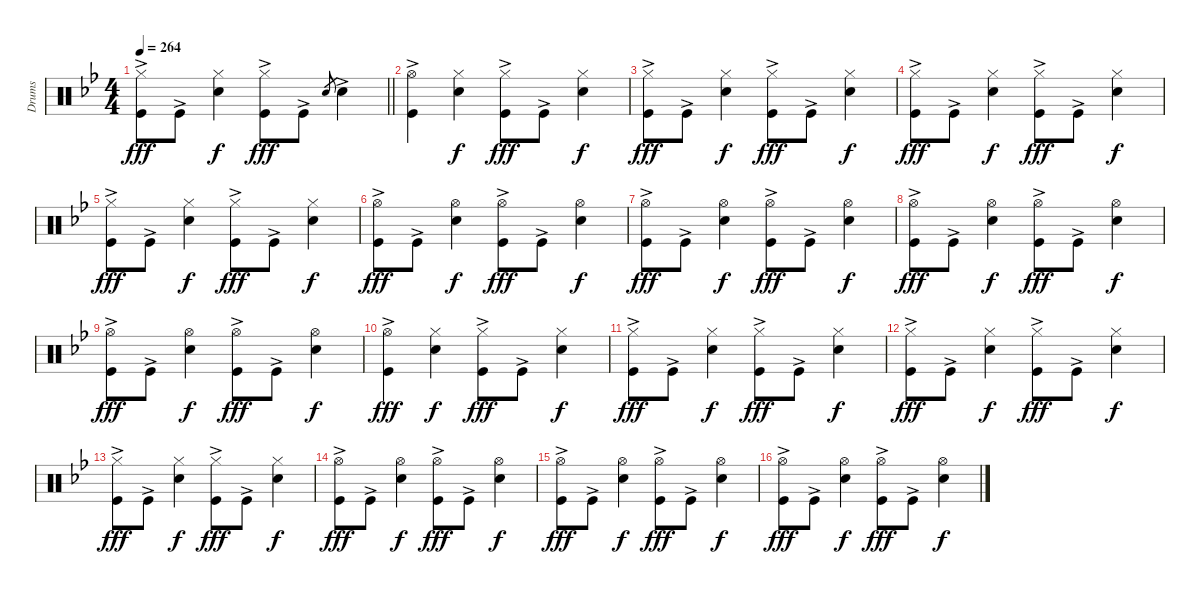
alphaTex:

\track ("Drums" "Drums") {instrument percussion}
\staff {score}
\articulation defaults
\ts (4 4)
\tempo 264
\clef neutral
\barLineRight lightlight
\ks gminor
("Hi-Hat (closed)" "Kick (hit)"{ac}).8{dy fff} "Kick (hit)"{ac}.8 ("Hi-Hat (closed)" "Snare (hit) 2").4{dy f} ("Hi-Hat (closed)" "Kick (hit)"{ac}).8{dy fff} "Kick (hit)"{ac}.8 "Snare (hit) 2".8{gr} "Snare (hit) 2"{ac}.4 |
("Hi-Hat (open)" "Kick (hit)"{ac}).4 ("Hi-Hat (closed)" "Snare (hit) 2").4{dy f} ("Hi-Hat (closed)" "Kick (hit)"{ac}).8{dy fff} "Kick (hit)"{ac}.8 ("Hi-Hat (closed)" "Snare (hit) 2").4{dy f} |
("Hi-Hat (closed)" "Kick (hit)"{ac}).8{dy fff} "Kick (hit)"{ac}.8 ("Hi-Hat (closed)" "Snare (hit) 2").4{dy f} ("Hi-Hat (closed)" "Kick (hit)"{ac}).8{dy fff} "Kick (hit)"{ac}.8 ("Hi-Hat (closed)" "Snare (hit) 2").4{dy f} |
("Hi-Hat (closed)" "Kick (hit)"{ac}).8{dy fff} "Kick (hit)"{ac}.8 ("Hi-Hat (closed)" "Snare (hit) 2").4{dy f} ("Hi-Hat (closed)" "Kick (hit)"{ac}).8{dy fff} "Kick (hit)"{ac}.8 ("Hi-Hat (closed)" "Snare (hit) 2").4{dy f} |
("Hi-Hat (closed)" "Kick (hit)"{ac}).8{dy fff} "Kick (hit)"{ac}.8 ("Hi-Hat (closed)" "Snare (hit) 2").4{dy f} ("Hi-Hat (closed)" "Kick (hit)"{ac}).8{dy fff} "Kick (hit)"{ac}.8 ("Hi-Hat (closed)" "Snare (hit) 2").4{dy f} |
("Hi-Hat (open)" "Kick (hit)"{ac}).8{dy fff} "Kick (hit)"{ac}.8 ("Hi-Hat (open)" "Snare (hit) 2").4{dy f} ("Hi-Hat (open)" "Kick (hit)"{ac}).8{dy fff} "Kick (hit)"{ac}.8 ("Hi-Hat (open)" "Snare (hit) 2").4{dy f} |
("Hi-Hat (open)" "Kick (hit)"{ac}).8{dy fff} "Kick (hit)"{ac}.8 ("Hi-Hat (open)" "Snare (hit) 2").4{dy f} ("Hi-Hat (open)" "Kick (hit)"{ac}).8{dy fff} "Kick (hit)"{ac}.8 ("Hi-Hat (open)" "Snare (hit) 2").4{dy f} |
("Hi-Hat (open)" "Kick (hit)"{ac}).8{dy fff} "Kick (hit)"{ac}.8 ("Hi-Hat (open)" "Snare (hit) 2").4{dy f} ("Hi-Hat (open)" "Kick (hit)"{ac}).8{dy fff} "Kick (hit)"{ac}.8 ("Hi-Hat (open)" "Snare (hit) 2").4{dy f} |
("Hi-Hat (open)" "Kick (hit)"{ac}).8{dy fff} "Kick (hit)"{ac}.8 ("Hi-Hat (open)" "Snare (hit) 2").4{dy f} ("Hi-Hat (open)" "Kick (hit)"{ac}).8{dy fff} "Kick (hit)"{ac}.8 ("Hi-Hat (open)" "Snare (hit) 2").4{dy f} |
("Hi-Hat (open)" "Kick (hit)"{ac}).4{dy fff} ("Hi-Hat (closed)" "Snare (hit) 2").4{dy f} ("Hi-Hat (closed)" "Kick (hit)"{ac}).8{dy fff} "Kick (hit)"{ac}.8 ("Hi-Hat (closed)" "Snare (hit) 2").4{dy f} |
("Hi-Hat (closed)" "Kick (hit)"{ac}).8{dy fff} "Kick (hit)"{ac}.8 ("Hi-Hat (closed)" "Snare (hit) 2").4{dy f} ("Hi-Hat (closed)" "Kick (hit)"{ac}).8{dy fff} "Kick (hit)"{ac}.8 ("Hi-Hat (closed)" "Snare (hit) 2").4{dy f} |
("Hi-Hat (closed)" "Kick (hit)"{ac}).8{dy fff} "Kick (hit)"{ac}.8 ("Hi-Hat (closed)" "Snare (hit) 2").4{dy f} ("Hi-Hat (closed)" "Kick (hit)"{ac}).8{dy fff} "Kick (hit)"{ac}.8 ("Hi-Hat (closed)" "Snare (hit) 2").4{dy f} |
("Hi-Hat (closed)" "Kick (hit)"{ac}).8{dy fff} "Kick (hit)"{ac}.8 ("Hi-Hat (closed)" "Snare (hit) 2").4{dy f} ("Hi-Hat (closed)" "Kick (hit)"{ac}).8{dy fff} "Kick (hit)"{ac}.8 ("Hi-Hat (closed)" "Snare (hit) 2").4{dy f} |
("Hi-Hat (open)" "Kick (hit)"{ac}).8{dy fff} "Kick (hit)"{ac}.8 ("Hi-Hat (open)" "Snare (hit) 2").4{dy f} ("Hi-Hat (open)" "Kick (hit)"{ac}).8{dy fff} "Kick (hit)"{ac}.8 ("Hi-Hat (open)" "Snare (hit) 2").4{dy f} |
("Hi-Hat (open)" "Kick (hit)"{ac}).8{dy fff} "Kick (hit)"{ac}.8 ("Hi-Hat (open)" "Snare (hit) 2").4{dy f} ("Hi-Hat (open)" "Kick (hit)"{ac}).8{dy fff} "Kick (hit)"{ac}.8 ("Hi-Hat (open)" "Snare (hit) 2").4{dy f} |
("Hi-Hat (open)" "Kick (hit)"{ac}).8{dy fff} "Kick (hit)"{ac}.8 ("Hi-Hat (open)" "Snare (hit) 2").4{dy f} ("Hi-Hat (open)" "Kick (hit)"{ac}).8{dy fff} "Kick (hit)"{ac}.8 ("Hi-Hat (open)" "Snare (hit) 2").4{dy f}
